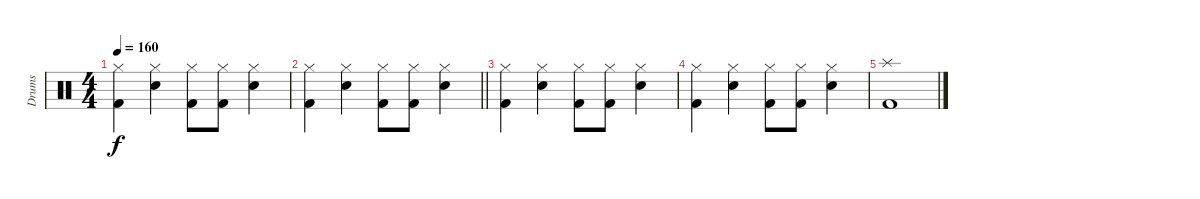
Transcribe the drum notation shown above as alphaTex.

\track ("Drums" "Drums") {instrument percussion}
\staff {score}
\articulation defaults
\ts (4 4)
\tempo 160
\clef neutral
\ks c
("Hi-Hat (closed)" "Kick (hit) 2").4{dy f} ("Hi-Hat (closed)" "Snare (hit) 2").4 ("Hi-Hat (closed)" "Kick (hit) 2").8 ("Hi-Hat (closed)" "Kick (hit) 2").8 ("Hi-Hat (closed)" "Snare (hit) 2").4 |
\barLineRight lightlight
("Hi-Hat (closed)" "Kick (hit) 2").4 ("Hi-Hat (closed)" "Snare (hit) 2").4 ("Hi-Hat (closed)" "Kick (hit) 2").8 ("Hi-Hat (closed)" "Kick (hit) 2").8 ("Hi-Hat (closed)" "Snare (hit) 2").4 |
("Hi-Hat (closed)" "Kick (hit) 2").4 ("Hi-Hat (closed)" "Snare (hit) 2").4 ("Hi-Hat (closed)" "Kick (hit) 2").8 ("Hi-Hat (closed)" "Kick (hit) 2").8 ("Hi-Hat (closed)" "Snare (hit) 2").4 |
("Hi-Hat (closed)" "Kick (hit) 2").4 ("Hi-Hat (closed)" "Snare (hit) 2").4 ("Hi-Hat (closed)" "Kick (hit) 2").8 ("Hi-Hat (closed)" "Kick (hit) 2").8 ("Hi-Hat (closed)" "Snare (hit) 2").4 |
("Splash (hit)" "Kick (hit) 2").1
